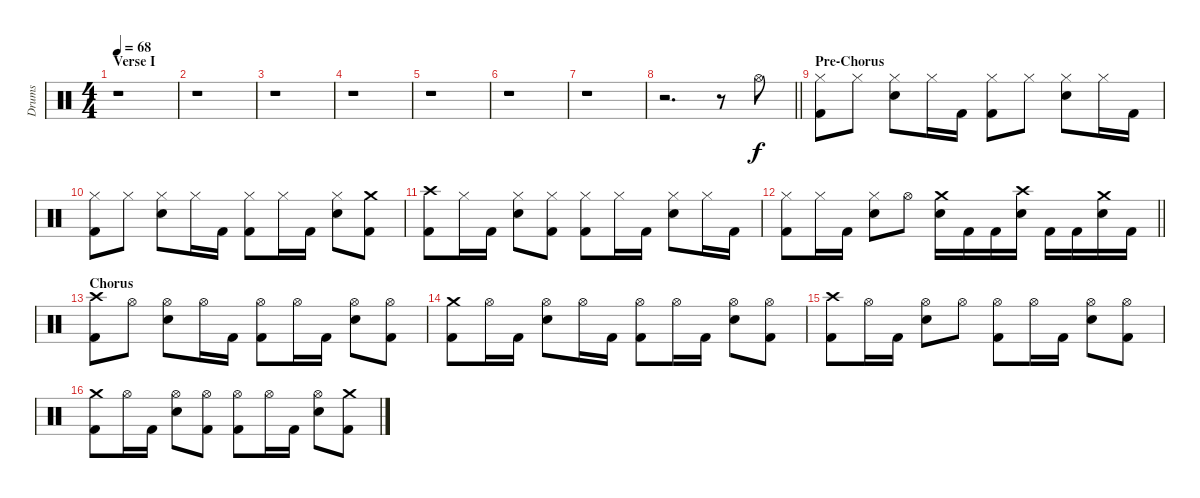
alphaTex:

\track ("Drums" "Drums") {instrument percussion}
\staff {score}
\articulation defaults
\ts (4 4)
\section ("" "Verse I")
\tempo 68
\clef neutral
\ks c
r.1{dy f} |
r.1 |
r.1 |
r.1 |
r.1 |
r.1 |
r.1 |
\barLineRight lightlight
r.2{d} r.8 "Hi-Hat (open)".8 |
\section ("" "Pre-Chorus")
("Hi-Hat (closed)" "Kick (hit) 2").8 "Hi-Hat (closed)".8 ("Hi-Hat (closed)" "Snare (hit) 2").8 "Hi-Hat (closed)".16 "Kick (hit) 2".16 ("Hi-Hat (closed)" "Kick (hit) 2").8 "Hi-Hat (closed)".8 ("Hi-Hat (closed)" "Snare (hit) 2").8 "Hi-Hat (closed)".16 "Kick (hit) 2".16 |
("Hi-Hat (closed)" "Kick (hit) 2").8 "Hi-Hat (closed)".8 ("Hi-Hat (closed)" "Snare (hit) 2").8 "Hi-Hat (closed)".16 "Kick (hit) 2".16 ("Hi-Hat (closed)" "Kick (hit) 2").8 "Hi-Hat (closed)".16 "Kick (hit) 2".16 ("Hi-Hat (closed)" "Snare (hit) 2").8 ("Crash medium (hit)" "Kick (hit) 2").8 |
("Crash high (hit)" "Kick (hit) 2").8 "Hi-Hat (closed)".16 "Kick (hit) 2".16 ("Hi-Hat (closed)" "Snare (hit) 2").8 ("Hi-Hat (closed)" "Kick (hit) 2").8 ("Hi-Hat (closed)" "Kick (hit) 2").8 "Hi-Hat (closed)".16 "Kick (hit) 2".16 ("Hi-Hat (closed)" "Snare (hit) 2").8 "Hi-Hat (closed)".16 "Kick (hit) 2".16 |
\barLineRight lightlight
("Hi-Hat (closed)" "Kick (hit) 2").8 "Hi-Hat (closed)".16 "Kick (hit) 2".16 ("Hi-Hat (closed)" "Snare (hit) 2").8 "Hi-Hat (open)".8 ("Crash medium (hit)" "Snare (hit) 2").16 "Kick (hit) 2".16 "Kick (hit) 2".16 ("Crash high (hit)" "Snare (hit) 2").16 "Kick (hit) 2".16 "Kick (hit) 2".16 ("Crash medium (hit)" "Snare (hit) 2").16 "Kick (hit) 2".16 |
\section ("" "Chorus")
("Crash high (hit)" "Kick (hit) 2").8 "Hi-Hat (open)".8 ("Hi-Hat (open)" "Snare (hit) 2").8 "Hi-Hat (open)".16 "Kick (hit) 2".16 ("Hi-Hat (open)" "Kick (hit) 2").8 "Hi-Hat (open)".16 "Kick (hit) 2".16 ("Hi-Hat (open)" "Snare (hit) 2").8 ("Hi-Hat (open)" "Kick (hit) 2").8 |
("Crash medium (hit)" "Kick (hit) 2").8 "Hi-Hat (open)".16 "Kick (hit) 2".16 ("Hi-Hat (open)" "Snare (hit) 2").8 "Hi-Hat (open)".16 "Kick (hit) 2".16 ("Hi-Hat (open)" "Kick (hit) 2").8 "Hi-Hat (open)".16 "Kick (hit) 2".16 ("Hi-Hat (open)" "Snare (hit) 2").8 ("Hi-Hat (open)" "Kick (hit) 2").8 |
("Crash high (hit)" "Kick (hit) 2").8 "Hi-Hat (open)".16 "Kick (hit) 2".16 ("Hi-Hat (open)" "Snare (hit) 2").8 "Hi-Hat (open)".8 ("Hi-Hat (open)" "Kick (hit) 2").8 "Hi-Hat (open)".16 "Kick (hit) 2".16 ("Hi-Hat (open)" "Snare (hit) 2").8 ("Hi-Hat (open)" "Kick (hit) 2").8 |
("Crash medium (hit)" "Kick (hit) 2").8 "Hi-Hat (open)".16 "Kick (hit) 2".16 ("Hi-Hat (open)" "Snare (hit) 2").8 ("Hi-Hat (open)" "Kick (hit) 2").8 ("Hi-Hat (open)" "Kick (hit) 2").8 "Hi-Hat (open)".16 "Kick (hit) 2".16 ("Hi-Hat (open)" "Snare (hit) 2").8 ("Crash medium (hit)" "Kick (hit) 2").8
